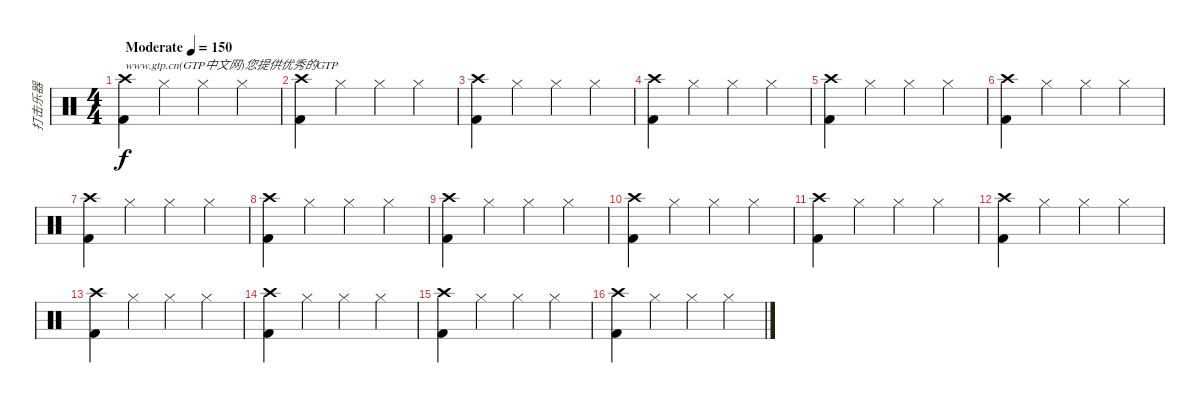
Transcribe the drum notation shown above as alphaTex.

\track ("打击乐器" "打击乐器") {instrument percussion}
\staff {score}
\articulation defaults
\ts (4 4)
\tempo (150 "Moderate")
\clef neutral
\ks c
("Kick (hit) 2" "Crash high (hit)").4{txt "www.gtp.cn(GTP中文网)您提供优秀的GTP" dy f} "Hi-Hat (closed)".4 "Hi-Hat (closed)".4 "Hi-Hat (closed)".4 |
("Kick (hit) 2" "Crash high (hit)").4 "Hi-Hat (closed)".4 "Hi-Hat (closed)".4 "Hi-Hat (closed)".4 |
("Kick (hit) 2" "Crash high (hit)").4 "Hi-Hat (closed)".4 "Hi-Hat (closed)".4 "Hi-Hat (closed)".4 |
("Kick (hit) 2" "Crash high (hit)").4 "Hi-Hat (closed)".4 "Hi-Hat (closed)".4 "Hi-Hat (closed)".4 |
("Kick (hit) 2" "Crash high (hit)").4 "Hi-Hat (closed)".4 "Hi-Hat (closed)".4 "Hi-Hat (closed)".4 |
("Kick (hit) 2" "Crash high (hit)").4 "Hi-Hat (closed)".4 "Hi-Hat (closed)".4 "Hi-Hat (closed)".4 |
("Kick (hit) 2" "Crash high (hit)").4 "Hi-Hat (closed)".4 "Hi-Hat (closed)".4 "Hi-Hat (closed)".4 |
("Kick (hit) 2" "Crash high (hit)").4 "Hi-Hat (closed)".4 "Hi-Hat (closed)".4 "Hi-Hat (closed)".4 |
("Kick (hit) 2" "Crash high (hit)").4 "Hi-Hat (closed)".4 "Hi-Hat (closed)".4 "Hi-Hat (closed)".4 |
("Kick (hit) 2" "Crash high (hit)").4 "Hi-Hat (closed)".4 "Hi-Hat (closed)".4 "Hi-Hat (closed)".4 |
("Kick (hit) 2" "Crash high (hit)").4 "Hi-Hat (closed)".4 "Hi-Hat (closed)".4 "Hi-Hat (closed)".4 |
("Kick (hit) 2" "Crash high (hit)").4 "Hi-Hat (closed)".4 "Hi-Hat (closed)".4 "Hi-Hat (closed)".4 |
("Kick (hit) 2" "Crash high (hit)").4 "Hi-Hat (closed)".4 "Hi-Hat (closed)".4 "Hi-Hat (closed)".4 |
("Kick (hit) 2" "Crash high (hit)").4 "Hi-Hat (closed)".4 "Hi-Hat (closed)".4 "Hi-Hat (closed)".4 |
("Kick (hit) 2" "Crash high (hit)").4 "Hi-Hat (closed)".4 "Hi-Hat (closed)".4 "Hi-Hat (closed)".4 |
("Kick (hit) 2" "Crash high (hit)").4 "Hi-Hat (closed)".4 "Hi-Hat (closed)".4 "Hi-Hat (closed)".4
